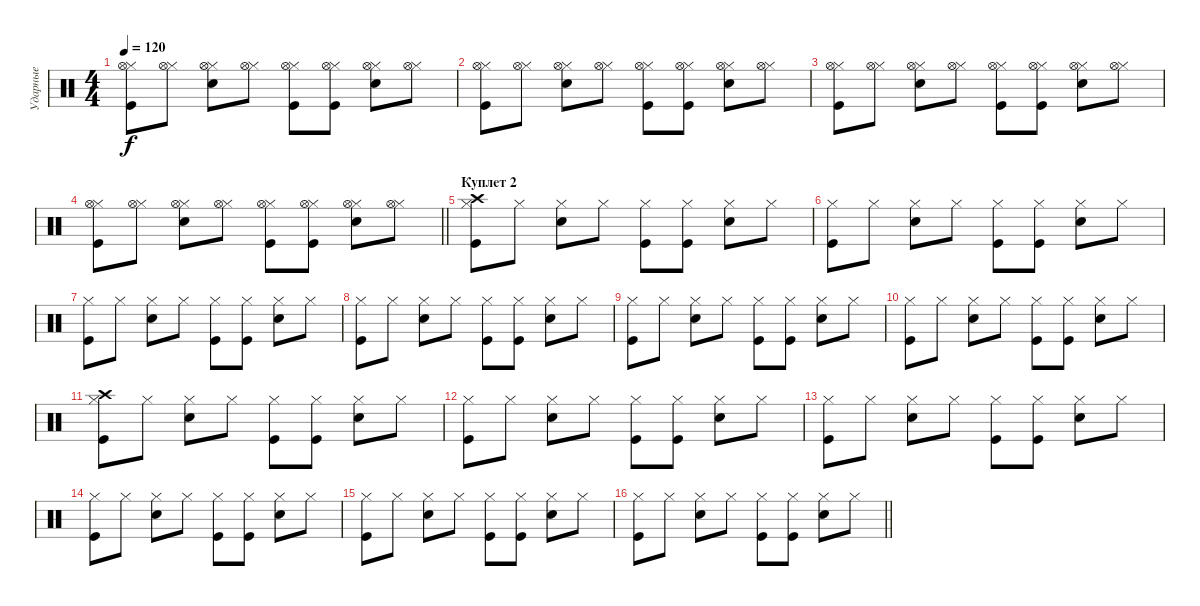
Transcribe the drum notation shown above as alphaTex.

\track ("Ударные" "Ударные") {instrument percussion}
\staff {score}
\articulation defaults
\ts (4 4)
\tempo 120
\clef neutral
\ks c
("Hi-Hat (closed)" "Kick (hit)" "Hi-Hat (open)").8{dy f} ("Hi-Hat (closed)" "Hi-Hat (open)").8 ("Hi-Hat (closed)" "Snare (hit) 2" "Hi-Hat (open)").8 ("Hi-Hat (closed)" "Hi-Hat (open)").8 ("Hi-Hat (closed)" "Kick (hit)" "Hi-Hat (open)").8 ("Hi-Hat (closed)" "Kick (hit)" "Hi-Hat (open)").8 ("Hi-Hat (closed)" "Snare (hit) 2" "Hi-Hat (open)").8 ("Hi-Hat (closed)" "Hi-Hat (open)").8 |
("Hi-Hat (closed)" "Kick (hit)" "Hi-Hat (open)").8 ("Hi-Hat (closed)" "Hi-Hat (open)").8 ("Hi-Hat (closed)" "Snare (hit) 2" "Hi-Hat (open)").8 ("Hi-Hat (closed)" "Hi-Hat (open)").8 ("Hi-Hat (closed)" "Kick (hit)" "Hi-Hat (open)").8 ("Hi-Hat (closed)" "Kick (hit)" "Hi-Hat (open)").8 ("Hi-Hat (closed)" "Snare (hit) 2" "Hi-Hat (open)").8 ("Hi-Hat (closed)" "Hi-Hat (open)").8 |
("Hi-Hat (closed)" "Kick (hit)" "Hi-Hat (open)").8 ("Hi-Hat (closed)" "Hi-Hat (open)").8 ("Hi-Hat (closed)" "Snare (hit) 2" "Hi-Hat (open)").8 ("Hi-Hat (closed)" "Hi-Hat (open)").8 ("Hi-Hat (closed)" "Kick (hit)" "Hi-Hat (open)").8 ("Hi-Hat (closed)" "Kick (hit)" "Hi-Hat (open)").8 ("Hi-Hat (closed)" "Snare (hit) 2" "Hi-Hat (open)").8 ("Hi-Hat (closed)" "Hi-Hat (open)").8 |
\barLineRight lightlight
("Hi-Hat (closed)" "Kick (hit)" "Hi-Hat (open)").8 ("Hi-Hat (closed)" "Hi-Hat (open)").8 ("Hi-Hat (closed)" "Snare (hit) 2" "Hi-Hat (open)").8 ("Hi-Hat (closed)" "Hi-Hat (open)").8 ("Hi-Hat (closed)" "Kick (hit)" "Hi-Hat (open)").8 ("Hi-Hat (closed)" "Kick (hit)" "Hi-Hat (open)").8 ("Hi-Hat (closed)" "Snare (hit) 2" "Hi-Hat (open)").8 ("Hi-Hat (closed)" "Hi-Hat (open)").8 |
\section ("" "Куплет 2")
("Hi-Hat (closed)" "Kick (hit)" "Crash high (hit)").8 "Hi-Hat (closed)".8 ("Hi-Hat (closed)" "Snare (hit) 2").8 "Hi-Hat (closed)".8 ("Hi-Hat (closed)" "Kick (hit)").8 ("Hi-Hat (closed)" "Kick (hit)").8 ("Hi-Hat (closed)" "Snare (hit) 2").8 "Hi-Hat (closed)".8 |
("Hi-Hat (closed)" "Kick (hit)").8 "Hi-Hat (closed)".8 ("Hi-Hat (closed)" "Snare (hit) 2").8 "Hi-Hat (closed)".8 ("Hi-Hat (closed)" "Kick (hit)").8 ("Hi-Hat (closed)" "Kick (hit)").8 ("Hi-Hat (closed)" "Snare (hit) 2").8 "Hi-Hat (closed)".8 |
("Hi-Hat (closed)" "Kick (hit)").8 "Hi-Hat (closed)".8 ("Hi-Hat (closed)" "Snare (hit) 2").8 "Hi-Hat (closed)".8 ("Hi-Hat (closed)" "Kick (hit)").8 ("Hi-Hat (closed)" "Kick (hit)").8 ("Hi-Hat (closed)" "Snare (hit) 2").8 "Hi-Hat (closed)".8 |
("Hi-Hat (closed)" "Kick (hit)").8 "Hi-Hat (closed)".8 ("Hi-Hat (closed)" "Snare (hit) 2").8 "Hi-Hat (closed)".8 ("Hi-Hat (closed)" "Kick (hit)").8 ("Hi-Hat (closed)" "Kick (hit)").8 ("Hi-Hat (closed)" "Snare (hit) 2").8 "Hi-Hat (closed)".8 |
("Hi-Hat (closed)" "Kick (hit)").8 "Hi-Hat (closed)".8 ("Hi-Hat (closed)" "Snare (hit) 2").8 "Hi-Hat (closed)".8 ("Hi-Hat (closed)" "Kick (hit)").8 ("Hi-Hat (closed)" "Kick (hit)").8 ("Hi-Hat (closed)" "Snare (hit) 2").8 "Hi-Hat (closed)".8 |
("Hi-Hat (closed)" "Kick (hit)").8 "Hi-Hat (closed)".8 ("Hi-Hat (closed)" "Snare (hit) 2").8 "Hi-Hat (closed)".8 ("Hi-Hat (closed)" "Kick (hit)").8 ("Hi-Hat (closed)" "Kick (hit)").8 ("Hi-Hat (closed)" "Snare (hit) 2").8 "Hi-Hat (closed)".8 |
("Hi-Hat (closed)" "Kick (hit)" "Crash high (hit)").8 "Hi-Hat (closed)".8 ("Hi-Hat (closed)" "Snare (hit) 2").8 "Hi-Hat (closed)".8 ("Hi-Hat (closed)" "Kick (hit)").8 ("Hi-Hat (closed)" "Kick (hit)").8 ("Hi-Hat (closed)" "Snare (hit) 2").8 "Hi-Hat (closed)".8 |
("Hi-Hat (closed)" "Kick (hit)").8 "Hi-Hat (closed)".8 ("Hi-Hat (closed)" "Snare (hit) 2").8 "Hi-Hat (closed)".8 ("Hi-Hat (closed)" "Kick (hit)").8 ("Hi-Hat (closed)" "Kick (hit)").8 ("Hi-Hat (closed)" "Snare (hit) 2").8 "Hi-Hat (closed)".8 |
("Hi-Hat (closed)" "Kick (hit)").8 "Hi-Hat (closed)".8 ("Hi-Hat (closed)" "Snare (hit) 2").8 "Hi-Hat (closed)".8 ("Hi-Hat (closed)" "Kick (hit)").8 ("Hi-Hat (closed)" "Kick (hit)").8 ("Hi-Hat (closed)" "Snare (hit) 2").8 "Hi-Hat (closed)".8 |
("Hi-Hat (closed)" "Kick (hit)").8 "Hi-Hat (closed)".8 ("Hi-Hat (closed)" "Snare (hit) 2").8 "Hi-Hat (closed)".8 ("Hi-Hat (closed)" "Kick (hit)").8 ("Hi-Hat (closed)" "Kick (hit)").8 ("Hi-Hat (closed)" "Snare (hit) 2").8 "Hi-Hat (closed)".8 |
("Hi-Hat (closed)" "Kick (hit)").8 "Hi-Hat (closed)".8 ("Hi-Hat (closed)" "Snare (hit) 2").8 "Hi-Hat (closed)".8 ("Hi-Hat (closed)" "Kick (hit)").8 ("Hi-Hat (closed)" "Kick (hit)").8 ("Hi-Hat (closed)" "Snare (hit) 2").8 "Hi-Hat (closed)".8 |
\barLineRight lightlight
("Hi-Hat (closed)" "Kick (hit)").8 "Hi-Hat (closed)".8 ("Hi-Hat (closed)" "Snare (hit) 2").8 "Hi-Hat (closed)".8 ("Hi-Hat (closed)" "Kick (hit)").8 ("Hi-Hat (closed)" "Kick (hit)").8 ("Hi-Hat (closed)" "Snare (hit) 2").8 "Hi-Hat (closed)".8
